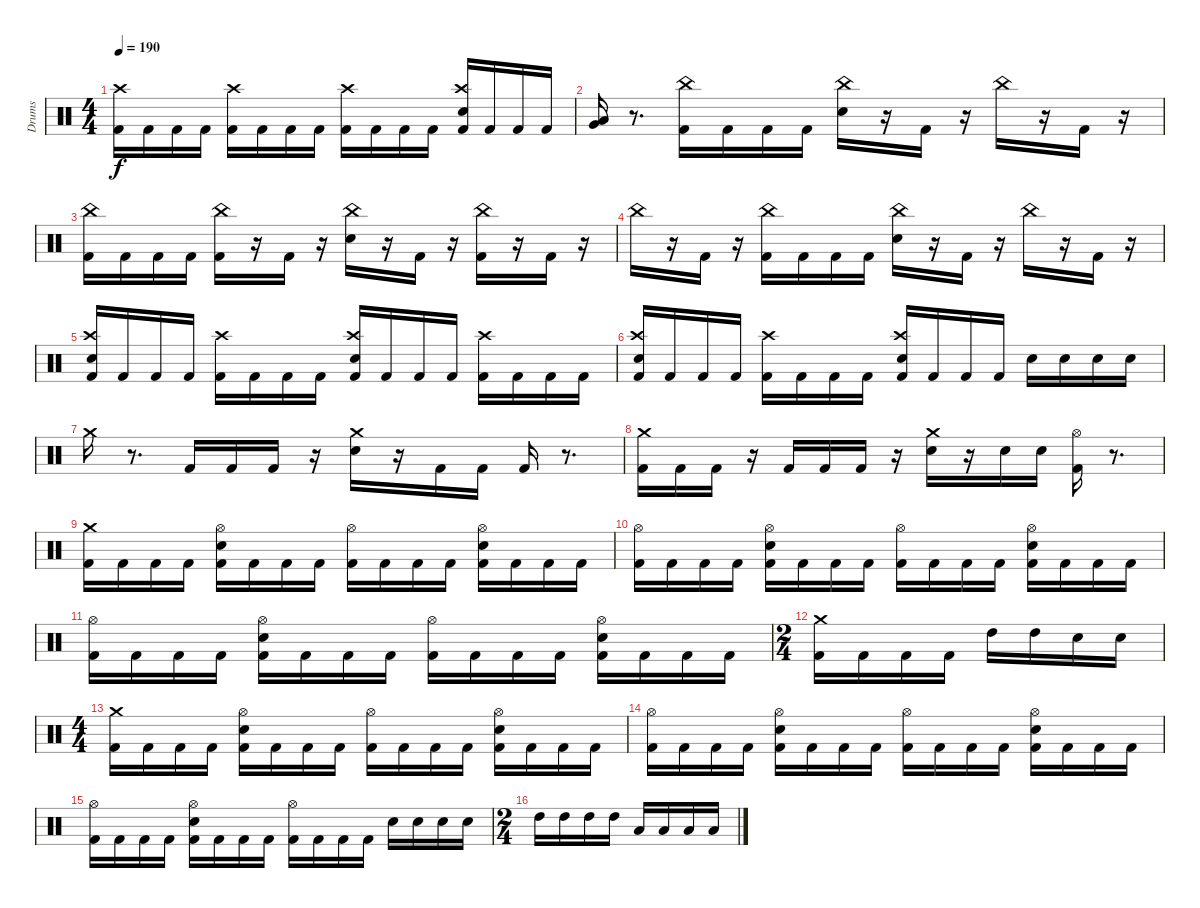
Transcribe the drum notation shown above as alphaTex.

\track ("Drums" "Drums") {instrument percussion}
\staff {score}
\articulation defaults
\ts (4 4)
\tempo 190
\clef neutral
\ks c
("Kick (hit) 2" "Crash high (hit)").16{dy f} "Kick (hit) 2".16 "Kick (hit) 2".16 "Kick (hit) 2".16 ("Kick (hit) 2" "Crash high (hit)").16 "Kick (hit) 2".16 "Kick (hit) 2".16 "Kick (hit) 2".16 ("Kick (hit) 2" "Crash high (hit)").16 "Kick (hit) 2".16 "Kick (hit) 2".16 "Kick (hit) 2".16 ("Kick (hit) 2" "Snare (hit) 2" "Crash high (hit)").16 "Kick (hit) 2".16 "Kick (hit) 2".16 "Kick (hit) 2".16 |
("Low Tom (hit)" "Very Low Tom (hit)").16 r.8{d} ("Kick (hit) 2" "China (hit)").16 "Kick (hit) 2".16 "Kick (hit) 2".16 "Kick (hit) 2".16 ("Snare (hit) 2" "China (hit)").16 r.16 "Kick (hit) 2".16 r.16 "China (hit)".16 r.16 "Kick (hit) 2".16 r.16 |
("Kick (hit) 2" "China (hit)").16 "Kick (hit) 2".16 "Kick (hit) 2".16 "Kick (hit) 2".16 ("Kick (hit) 2" "China (hit)").16 r.16 "Kick (hit) 2".16 r.16 ("Snare (hit) 2" "China (hit)").16 r.16 "Kick (hit) 2".16 r.16 ("Kick (hit) 2" "China (hit)").16 r.16 "Kick (hit) 2".16 r.16 |
"China (hit)".16 r.16 "Kick (hit) 2".16 r.16 ("Kick (hit) 2" "China (hit)").16 "Kick (hit) 2".16 "Kick (hit) 2".16 "Kick (hit) 2".16 ("Snare (hit) 2" "China (hit)").16 r.16 "Kick (hit) 2".16 r.16 "China (hit)".16 r.16 "Kick (hit) 2".16 r.16 |
("Kick (hit) 2" "Snare (hit) 2" "Crash high (hit)").16 "Kick (hit) 2".16 "Kick (hit) 2".16 "Kick (hit) 2".16 ("Kick (hit) 2" "Crash high (hit)").16 "Kick (hit) 2".16 "Kick (hit) 2".16 "Kick (hit) 2".16 ("Kick (hit) 2" "Snare (hit) 2" "Crash high (hit)").16 "Kick (hit) 2".16 "Kick (hit) 2".16 "Kick (hit) 2".16 ("Kick (hit) 2" "Crash high (hit)").16 "Kick (hit) 2".16 "Kick (hit) 2".16 "Kick (hit) 2".16 |
("Kick (hit) 2" "Snare (hit) 2" "Crash high (hit)").16 "Kick (hit) 2".16 "Kick (hit) 2".16 "Kick (hit) 2".16 ("Kick (hit) 2" "Crash high (hit)").16 "Kick (hit) 2".16 "Kick (hit) 2".16 "Kick (hit) 2".16 ("Kick (hit) 2" "Snare (hit) 2" "Crash high (hit)").16 "Kick (hit) 2".16 "Kick (hit) 2".16 "Kick (hit) 2".16 "Snare (hit) 2".16 "Snare (hit) 2".16 "Snare (hit) 2".16 "Snare (hit) 2".16 |
"Crash medium (hit)".16 r.8{d} "Kick (hit) 2".16 "Kick (hit) 2".16 "Kick (hit) 2".16 r.16 ("Snare (hit) 2" "Crash medium (hit)").16 r.16 "Kick (hit) 2".16 "Kick (hit) 2".16 "Kick (hit) 2".16 r.8{d} |
("Kick (hit) 2" "Crash medium (hit)").16 "Kick (hit) 2".16 "Kick (hit) 2".16 r.16 "Kick (hit) 2".16 "Kick (hit) 2".16 "Kick (hit) 2".16 r.16 ("Snare (hit) 2" "Crash medium (hit)").16 r.16 "Snare (hit) 2".16 "Snare (hit) 2".16 ("Kick (hit) 2" "Hi-Hat (open)").16 r.8{d} |
("Kick (hit) 2" "Crash medium (hit)").16 "Kick (hit) 2".16 "Kick (hit) 2".16 "Kick (hit) 2".16 ("Kick (hit) 2" "Snare (hit) 2" "Hi-Hat (open)").16 "Kick (hit) 2".16 "Kick (hit) 2".16 "Kick (hit) 2".16 ("Kick (hit) 2" "Hi-Hat (open)").16 "Kick (hit) 2".16 "Kick (hit) 2".16 "Kick (hit) 2".16 ("Kick (hit) 2" "Snare (hit) 2" "Hi-Hat (open)").16 "Kick (hit) 2".16 "Kick (hit) 2".16 "Kick (hit) 2".16 |
("Kick (hit) 2" "Hi-Hat (open)").16 "Kick (hit) 2".16 "Kick (hit) 2".16 "Kick (hit) 2".16 ("Kick (hit) 2" "Snare (hit) 2" "Hi-Hat (open)").16 "Kick (hit) 2".16 "Kick (hit) 2".16 "Kick (hit) 2".16 ("Kick (hit) 2" "Hi-Hat (open)").16 "Kick (hit) 2".16 "Kick (hit) 2".16 "Kick (hit) 2".16 ("Kick (hit) 2" "Snare (hit) 2" "Hi-Hat (open)").16 "Kick (hit) 2".16 "Kick (hit) 2".16 "Kick (hit) 2".16 |
("Kick (hit) 2" "Hi-Hat (open)").16 "Kick (hit) 2".16 "Kick (hit) 2".16 "Kick (hit) 2".16 ("Kick (hit) 2" "Snare (hit) 2" "Hi-Hat (open)").16 "Kick (hit) 2".16 "Kick (hit) 2".16 "Kick (hit) 2".16 ("Kick (hit) 2" "Hi-Hat (open)").16 "Kick (hit) 2".16 "Kick (hit) 2".16 "Kick (hit) 2".16 ("Kick (hit) 2" "Snare (hit) 2" "Hi-Hat (open)").16 "Kick (hit) 2".16 "Kick (hit) 2".16 "Kick (hit) 2".16 |
\ts (2 4)
("Kick (hit) 2" "Crash medium (hit)").16 "Kick (hit) 2".16 "Kick (hit) 2".16 "Kick (hit) 2".16 "High Tom (hit)".16 "High Tom (hit)".16 "Snare (hit) 2".16 "Snare (hit) 2".16 |
\ts (4 4)
("Kick (hit) 2" "Crash medium (hit)").16 "Kick (hit) 2".16 "Kick (hit) 2".16 "Kick (hit) 2".16 ("Kick (hit) 2" "Snare (hit) 2" "Hi-Hat (open)").16 "Kick (hit) 2".16 "Kick (hit) 2".16 "Kick (hit) 2".16 ("Kick (hit) 2" "Hi-Hat (open)").16 "Kick (hit) 2".16 "Kick (hit) 2".16 "Kick (hit) 2".16 ("Kick (hit) 2" "Snare (hit) 2" "Hi-Hat (open)").16 "Kick (hit) 2".16 "Kick (hit) 2".16 "Kick (hit) 2".16 |
("Kick (hit) 2" "Hi-Hat (open)").16 "Kick (hit) 2".16 "Kick (hit) 2".16 "Kick (hit) 2".16 ("Kick (hit) 2" "Snare (hit) 2" "Hi-Hat (open)").16 "Kick (hit) 2".16 "Kick (hit) 2".16 "Kick (hit) 2".16 ("Kick (hit) 2" "Hi-Hat (open)").16 "Kick (hit) 2".16 "Kick (hit) 2".16 "Kick (hit) 2".16 ("Kick (hit) 2" "Snare (hit) 2" "Hi-Hat (open)").16 "Kick (hit) 2".16 "Kick (hit) 2".16 "Kick (hit) 2".16 |
("Kick (hit) 2" "Hi-Hat (open)").16 "Kick (hit) 2".16 "Kick (hit) 2".16 "Kick (hit) 2".16 ("Kick (hit) 2" "Snare (hit) 2" "Hi-Hat (open)").16 "Kick (hit) 2".16 "Kick (hit) 2".16 "Kick (hit) 2".16 ("Kick (hit) 2" "Hi-Hat (open)").16 "Kick (hit) 2".16 "Kick (hit) 2".16 "Kick (hit) 2".16 "Snare (hit) 2".16 "Snare (hit) 2".16 "Snare (hit) 2".16 "Snare (hit) 2".16 |
\ts (2 4)
"High Tom (hit)".16 "High Tom (hit)".16 "High Tom (hit)".16 "High Tom (hit)".16 "Low Tom (hit)".16 "Low Tom (hit)".16 "Low Tom (hit)".16 "Low Tom (hit)".16
